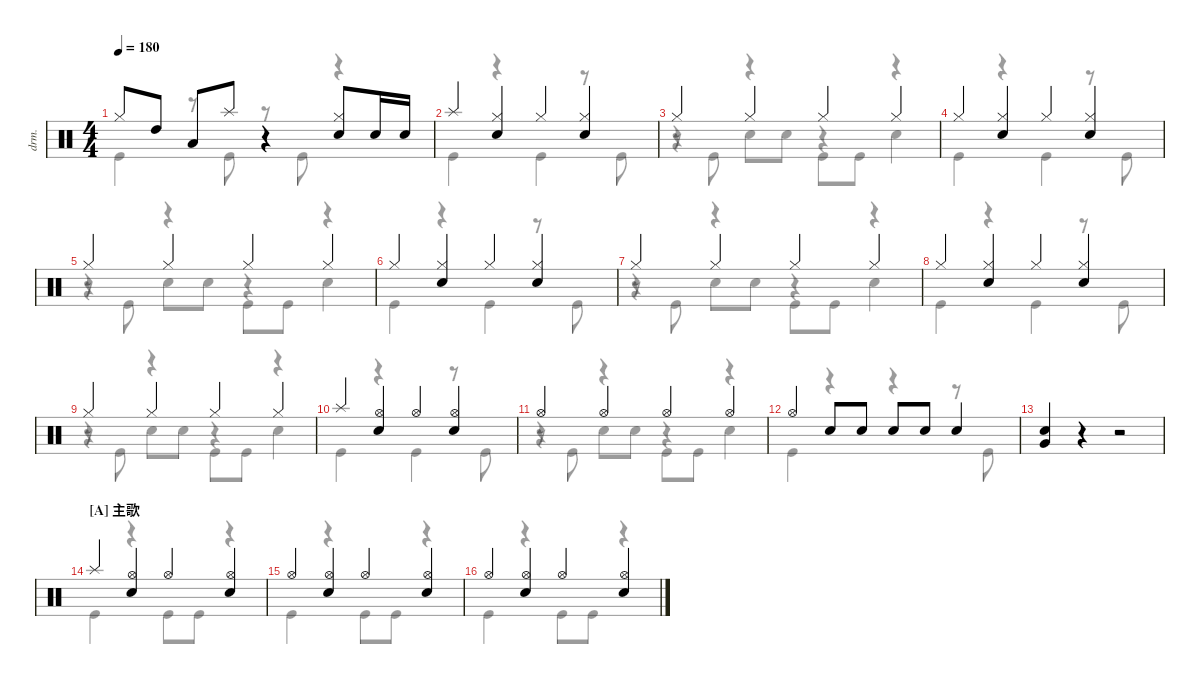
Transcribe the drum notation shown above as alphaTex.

\defaultSystemsLayout 4
\hideDynamics
\bracketExtendMode nobrackets
\otherSystemsTrackNameOrientation horizontal
\track ("Drumkit" "drm.") {instrument percussion}
\staff {score}
\articulation defaults
\voice
\ts (4 4)
\tempo 180
\clef neutral
\ks c "Hi-Hat (closed)".8{dy mf} "High Tom (hit)".8 "Low Tom (hit)".8 "Splash (hit)".8
r.4 ("Hi-Hat (closed)" "Snare (hit) 2").8 "Snare (hit) 2".16 "Snare (hit) 2".16 |
"Splash (hit)".4 ("Hi-Hat (closed)" "Snare (hit) 2").4 "Hi-Hat (closed)".4 ("Hi-Hat (closed)" "Snare (hit) 2").4 |
"Hi-Hat (closed)".4 "Hi-Hat (closed)".4 "Hi-Hat (closed)".4 "Hi-Hat (closed)".4 |
"Hi-Hat (closed)".4 ("Hi-Hat (closed)" "Snare (hit) 2").4 "Hi-Hat (closed)".4 ("Hi-Hat (closed)" "Snare (hit) 2").4 |
"Hi-Hat (closed)".4 "Hi-Hat (closed)".4 "Hi-Hat (closed)".4 "Hi-Hat (closed)".4 |
"Hi-Hat (closed)".4 ("Hi-Hat (closed)" "Snare (hit) 2").4 "Hi-Hat (closed)".4 ("Hi-Hat (closed)" "Snare (hit) 2").4 |
"Hi-Hat (closed)".4 "Hi-Hat (closed)".4 "Hi-Hat (closed)".4 "Hi-Hat (closed)".4 |
"Hi-Hat (closed)".4 ("Hi-Hat (closed)" "Snare (hit) 2").4 "Hi-Hat (closed)".4 ("Hi-Hat (closed)" "Snare (hit) 2").4 |
"Hi-Hat (closed)".4 "Hi-Hat (closed)".4 "Hi-Hat (closed)".4 "Hi-Hat (closed)".4 |
"Splash (hit)".4 ("Hi-Hat (open)" "Snare (hit) 2").4 "Hi-Hat (open)".4 ("Hi-Hat (open)" "Snare (hit) 2").4 |
"Hi-Hat (open)".4 "Hi-Hat (open)".4 "Hi-Hat (open)".4 "Hi-Hat (open)".4 |
"Hi-Hat (open)".4 "Snare (hit) 2".8 "Snare (hit) 2".8 "Snare (hit) 2".8 "Snare (hit) 2".8 "Snare (hit) 2".4 |
("Snare (hit) 2" "Very Low Tom (hit)").4 r.4 r.2 |
\section ("A" "主歌")
"Splash (hit)".4 ("Hi-Hat (open)" "Snare (hit) 2").4 "Hi-Hat (open)".4 ("Hi-Hat (open)" "Snare (hit) 2").4 |
"Hi-Hat (open)".4 ("Hi-Hat (open)" "Snare (hit) 2").4 "Hi-Hat (open)".4 ("Hi-Hat (open)" "Snare (hit) 2").4 |
"Hi-Hat (open)".4 ("Hi-Hat (open)" "Snare (hit) 2").4 "Hi-Hat (open)".4 ("Hi-Hat (open)" "Snare (hit) 2").4
\voice
\clef neutral
\ottava regular
\simile none
\ks c "Kick (hit)".4{dy mf}
r.8 "Kick (hit)".8 r.8 "Kick (hit)".8 r.4 |
"Kick (hit)".4 r.4 "Kick (hit)".4 r.8 "Kick (hit)".8 |
r.8 "Kick (hit)".8 r.4 "Kick (hit)".8 "Kick (hit)".8 r.4 |
"Kick (hit)".4 r.4 "Kick (hit)".4 r.8 "Kick (hit)".8 |
r.8 "Kick (hit)".8 r.4 "Kick (hit)".8 "Kick (hit)".8 r.4 |
"Kick (hit)".4 r.4 "Kick (hit)".4 r.8 "Kick (hit)".8 |
r.8 "Kick (hit)".8 r.4 "Kick (hit)".8 "Kick (hit)".8 r.4 |
"Kick (hit)".4 r.4 "Kick (hit)".4 r.8 "Kick (hit)".8 |
r.8 "Kick (hit)".8 r.4 "Kick (hit)".8 "Kick (hit)".8 r.4 |
"Kick (hit)".4 r.4 "Kick (hit)".4 r.8 "Kick (hit)".8 |
r.8 "Kick (hit)".8 r.4 "Kick (hit)".8 "Kick (hit)".8 r.4 |
"Kick (hit)".4 r.4 r.4 r.8 "Kick (hit)".8 |
|
"Kick (hit)".4 r.4 "Kick (hit)".8 "Kick (hit)".8 r.4 |
"Kick (hit)".4 r.4 "Kick (hit)".8 "Kick (hit)".8 r.4 |
"Kick (hit)".4 r.4 "Kick (hit)".8 "Kick (hit)".8 r.4
\voice
\clef neutral
\ottava regular
\simile none
\ks c
|
|
r.4 "Snare (hit) 2".8 "Snare (hit) 2".8 r.4 "Snare (hit) 2".4 |
|
r.4 "Snare (hit) 2".8 "Snare (hit) 2".8 r.4 "Snare (hit) 2".4 |
|
r.4 "Snare (hit) 2".8 "Snare (hit) 2".8 r.4 "Snare (hit) 2".4 |
|
r.4 "Snare (hit) 2".8 "Snare (hit) 2".8 r.4 "Snare (hit) 2".4 |
|
r.4 "Snare (hit) 2".8 "Snare (hit) 2".8 r.4 "Snare (hit) 2".4 |
|
|
|
|
